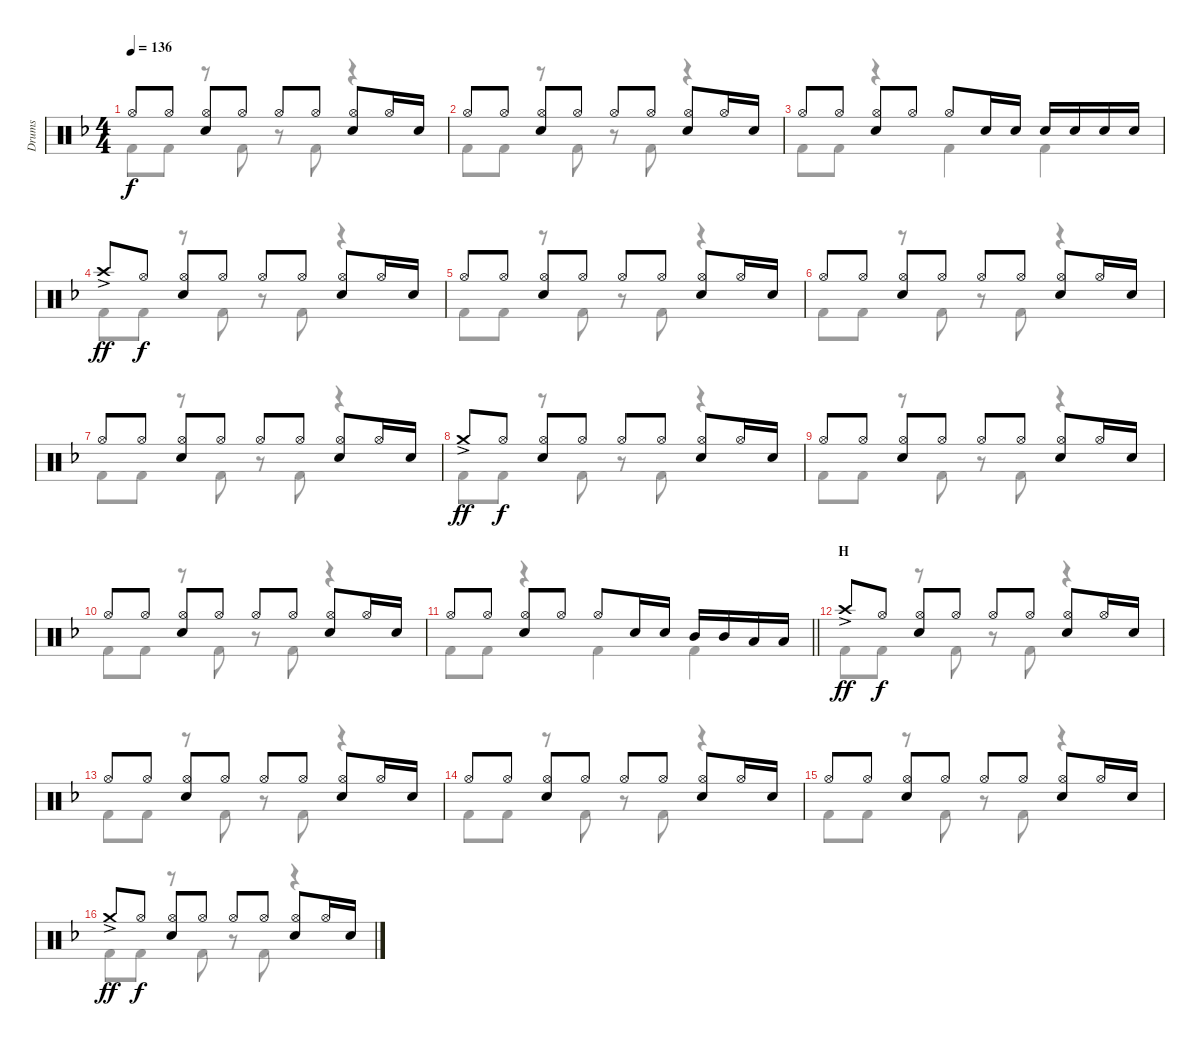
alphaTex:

\track ("Drums" "Drums") {instrument percussion}
\staff {score}
\articulation defaults
\voice
\ts (4 4)
\tempo 136
\clef neutral
\ks f "Hi-Hat (open)".8{dy f} "Hi-Hat (open)".8
("Hi-Hat (open)" "Snare (hit) 2").8 "Hi-Hat (open)".8 "Hi-Hat (open)".8 "Hi-Hat (open)".8 ("Hi-Hat (open)" "Snare (hit) 2").8 "Hi-Hat (open)".16 "Snare (hit) 2".16 |
"Hi-Hat (open)".8 "Hi-Hat (open)".8 ("Hi-Hat (open)" "Snare (hit) 2").8 "Hi-Hat (open)".8 "Hi-Hat (open)".8 "Hi-Hat (open)".8 ("Hi-Hat (open)" "Snare (hit) 2").8 "Hi-Hat (open)".16 "Snare (hit) 2".16 |
"Hi-Hat (open)".8 "Hi-Hat (open)".8 ("Hi-Hat (open)" "Snare (hit) 2").8 "Hi-Hat (open)".8 "Hi-Hat (open)".8 "Snare (hit) 2".16 "Snare (hit) 2".16 "Snare (hit) 2".16 "Snare (hit) 2".16 "Snare (hit) 2".16 "Snare (hit) 2".16 |
"Crash high (hit)"{ac}.8{dy ff} "Hi-Hat (open)".8{dy f} ("Hi-Hat (open)" "Snare (hit) 2").8 "Hi-Hat (open)".8 "Hi-Hat (open)".8 "Hi-Hat (open)".8 ("Hi-Hat (open)" "Snare (hit) 2").8 "Hi-Hat (open)".16 "Snare (hit) 2".16 |
"Hi-Hat (open)".8 "Hi-Hat (open)".8 ("Hi-Hat (open)" "Snare (hit) 2").8 "Hi-Hat (open)".8 "Hi-Hat (open)".8 "Hi-Hat (open)".8 ("Hi-Hat (open)" "Snare (hit) 2").8 "Hi-Hat (open)".16 "Snare (hit) 2".16 |
"Hi-Hat (open)".8 "Hi-Hat (open)".8 ("Hi-Hat (open)" "Snare (hit) 2").8 "Hi-Hat (open)".8 "Hi-Hat (open)".8 "Hi-Hat (open)".8 ("Hi-Hat (open)" "Snare (hit) 2").8 "Hi-Hat (open)".16 "Snare (hit) 2".16 |
"Hi-Hat (open)".8 "Hi-Hat (open)".8 ("Hi-Hat (open)" "Snare (hit) 2").8 "Hi-Hat (open)".8 "Hi-Hat (open)".8 "Hi-Hat (open)".8 ("Hi-Hat (open)" "Snare (hit) 2").8 "Hi-Hat (open)".16 "Snare (hit) 2".16 |
"Crash medium (hit)"{ac}.8{dy ff} "Hi-Hat (open)".8{dy f} ("Hi-Hat (open)" "Snare (hit) 2").8 "Hi-Hat (open)".8 "Hi-Hat (open)".8 "Hi-Hat (open)".8 ("Hi-Hat (open)" "Snare (hit) 2").8 "Hi-Hat (open)".16 "Snare (hit) 2".16 |
"Hi-Hat (open)".8 "Hi-Hat (open)".8 ("Hi-Hat (open)" "Snare (hit) 2").8 "Hi-Hat (open)".8 "Hi-Hat (open)".8 "Hi-Hat (open)".8 ("Hi-Hat (open)" "Snare (hit) 2").8 "Hi-Hat (open)".16 "Snare (hit) 2".16 |
"Hi-Hat (open)".8 "Hi-Hat (open)".8 ("Hi-Hat (open)" "Snare (hit) 2").8 "Hi-Hat (open)".8 "Hi-Hat (open)".8 "Hi-Hat (open)".8 ("Hi-Hat (open)" "Snare (hit) 2").8 "Hi-Hat (open)".16 "Snare (hit) 2".16 |
\barLineRight lightlight "Hi-Hat (open)".8 "Hi-Hat (open)".8
("Hi-Hat (open)" "Snare (hit) 2").8 "Hi-Hat (open)".8 "Hi-Hat (open)".8 "Snare (hit) 2".16 "Snare (hit) 2".16 "Mid Tom (hit)".16 "Mid Tom (hit)".16 "Low Tom (hit)".16 "Low Tom (hit)".16 |
\section ("" "H")
"Crash high (hit)"{ac}.8{dy ff} "Hi-Hat (open)".8{dy f} ("Hi-Hat (open)" "Snare (hit) 2").8 "Hi-Hat (open)".8 "Hi-Hat (open)".8 "Hi-Hat (open)".8 ("Hi-Hat (open)" "Snare (hit) 2").8 "Hi-Hat (open)".16 "Snare (hit) 2".16 |
"Hi-Hat (open)".8 "Hi-Hat (open)".8 ("Hi-Hat (open)" "Snare (hit) 2").8 "Hi-Hat (open)".8 "Hi-Hat (open)".8 "Hi-Hat (open)".8 ("Hi-Hat (open)" "Snare (hit) 2").8 "Hi-Hat (open)".16 "Snare (hit) 2".16 |
"Hi-Hat (open)".8 "Hi-Hat (open)".8 ("Hi-Hat (open)" "Snare (hit) 2").8 "Hi-Hat (open)".8 "Hi-Hat (open)".8 "Hi-Hat (open)".8 ("Hi-Hat (open)" "Snare (hit) 2").8 "Hi-Hat (open)".16 "Snare (hit) 2".16 |
"Hi-Hat (open)".8 "Hi-Hat (open)".8 ("Hi-Hat (open)" "Snare (hit) 2").8 "Hi-Hat (open)".8 "Hi-Hat (open)".8 "Hi-Hat (open)".8 ("Hi-Hat (open)" "Snare (hit) 2").8 "Hi-Hat (open)".16 "Snare (hit) 2".16 |
"Crash medium (hit)"{ac}.8{dy ff} "Hi-Hat (open)".8{dy f} ("Hi-Hat (open)" "Snare (hit) 2").8 "Hi-Hat (open)".8 "Hi-Hat (open)".8 "Hi-Hat (open)".8 ("Hi-Hat (open)" "Snare (hit) 2").8 "Hi-Hat (open)".16 "Snare (hit) 2".16
\voice
\clef neutral
\ottava regular
\simile none
\ks f "Kick (hit) 2".8{dy f} "Kick (hit) 2".8
r.8 "Kick (hit) 2".8 r.8 "Kick (hit) 2".8 r.4 |
"Kick (hit) 2".8 "Kick (hit) 2".8 r.8 "Kick (hit) 2".8 r.8 "Kick (hit) 2".8 r.4 |
"Kick (hit) 2".8 "Kick (hit) 2".8 r.4 "Kick (hit) 2".4 "Kick (hit) 2".4 |
"Kick (hit) 2".8 "Kick (hit) 2".8 r.8 "Kick (hit) 2".8 r.8 "Kick (hit) 2".8 r.4 |
"Kick (hit) 2".8 "Kick (hit) 2".8 r.8 "Kick (hit) 2".8 r.8 "Kick (hit) 2".8 r.4 |
"Kick (hit) 2".8 "Kick (hit) 2".8 r.8 "Kick (hit) 2".8 r.8 "Kick (hit) 2".8 r.4 |
"Kick (hit) 2".8 "Kick (hit) 2".8 r.8 "Kick (hit) 2".8 r.8 "Kick (hit) 2".8 r.4 |
"Kick (hit) 2".8 "Kick (hit) 2".8 r.8 "Kick (hit) 2".8 r.8 "Kick (hit) 2".8 r.4 |
"Kick (hit) 2".8 "Kick (hit) 2".8 r.8 "Kick (hit) 2".8 r.8 "Kick (hit) 2".8 r.4 |
"Kick (hit) 2".8 "Kick (hit) 2".8 r.8 "Kick (hit) 2".8 r.8 "Kick (hit) 2".8 r.4 |
\barLineRight lightlight "Kick (hit) 2".8 "Kick (hit) 2".8
r.4 "Kick (hit) 2".4 "Kick (hit) 2".4 |
"Kick (hit) 2".8 "Kick (hit) 2".8 r.8 "Kick (hit) 2".8 r.8 "Kick (hit) 2".8 r.4 |
"Kick (hit) 2".8 "Kick (hit) 2".8 r.8 "Kick (hit) 2".8 r.8 "Kick (hit) 2".8 r.4 |
"Kick (hit) 2".8 "Kick (hit) 2".8 r.8 "Kick (hit) 2".8 r.8 "Kick (hit) 2".8 r.4 |
"Kick (hit) 2".8 "Kick (hit) 2".8 r.8 "Kick (hit) 2".8 r.8 "Kick (hit) 2".8 r.4 |
"Kick (hit) 2".8 "Kick (hit) 2".8 r.8 "Kick (hit) 2".8 r.8 "Kick (hit) 2".8 r.4
